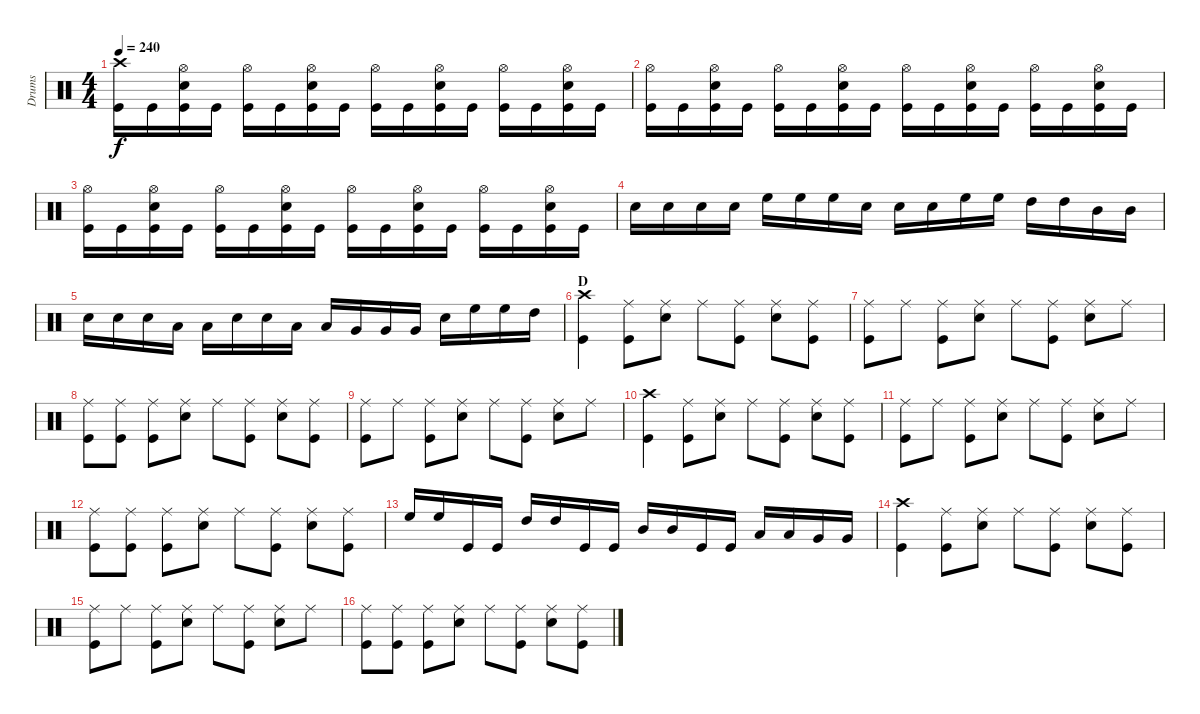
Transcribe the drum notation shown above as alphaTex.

\track ("Drums" "Drums") {instrument percussion}
\staff {score}
\articulation defaults
\ts (4 4)
\tempo 240
\clef neutral
\ks c
("Crash high (hit)" "Kick (hit)").16{dy f} "Kick (hit)".16 ("Hi-Hat (open)" "Snare (hit) 2" "Kick (hit)").16 "Kick (hit)".16 ("Hi-Hat (open)" "Kick (hit)").16 "Kick (hit)".16 ("Hi-Hat (open)" "Snare (hit) 2" "Kick (hit)").16 "Kick (hit)".16 ("Hi-Hat (open)" "Kick (hit)").16 "Kick (hit)".16 ("Hi-Hat (open)" "Snare (hit) 2" "Kick (hit)").16 "Kick (hit)".16 ("Hi-Hat (open)" "Kick (hit)").16 "Kick (hit)".16 ("Hi-Hat (open)" "Snare (hit) 2" "Kick (hit)").16 "Kick (hit)".16 |
("Hi-Hat (open)" "Kick (hit)").16 "Kick (hit)".16 ("Hi-Hat (open)" "Snare (hit) 2" "Kick (hit)").16 "Kick (hit)".16 ("Hi-Hat (open)" "Kick (hit)").16 "Kick (hit)".16 ("Hi-Hat (open)" "Snare (hit) 2" "Kick (hit)").16 "Kick (hit)".16 ("Hi-Hat (open)" "Kick (hit)").16 "Kick (hit)".16 ("Hi-Hat (open)" "Snare (hit) 2" "Kick (hit)").16 "Kick (hit)".16 ("Hi-Hat (open)" "Kick (hit)").16 "Kick (hit)".16 ("Hi-Hat (open)" "Snare (hit) 2" "Kick (hit)").16 "Kick (hit)".16 |
("Hi-Hat (open)" "Kick (hit)").16 "Kick (hit)".16 ("Hi-Hat (open)" "Snare (hit) 2" "Kick (hit)").16 "Kick (hit)".16 ("Hi-Hat (open)" "Kick (hit)").16 "Kick (hit)".16 ("Hi-Hat (open)" "Snare (hit) 2" "Kick (hit)").16 "Kick (hit)".16 ("Hi-Hat (open)" "Kick (hit)").16 "Kick (hit)".16 ("Hi-Hat (open)" "Snare (hit) 2" "Kick (hit)").16 "Kick (hit)".16 ("Hi-Hat (open)" "Kick (hit)").16 "Kick (hit)".16 ("Hi-Hat (open)" "Snare (hit) 2" "Kick (hit)").16 "Kick (hit)".16 |
"Snare (hit) 2".16 "Snare (hit) 2".16 "Snare (hit) 2".16 "Snare (hit) 2".16 "High Floor Tom (hit)".16 "High Floor Tom (hit)".16 "High Floor Tom (hit)".16 "Snare (hit) 2".16 "Snare (hit) 2".16 "Snare (hit) 2".16 "High Floor Tom (hit)".16 "High Floor Tom (hit)".16 "High Tom (hit)".16 "High Tom (hit)".16 "Mid Tom (hit)".16 "Mid Tom (hit)".16 |
"Snare (hit) 2".16 "Snare (hit) 2".16 "Snare (hit) 2".16 "Low Tom (hit)".16 "Low Tom (hit)".16 "Snare (hit) 2".16 "Snare (hit) 2".16 "Low Tom (hit)".16 "Low Tom (hit)".16 "Very Low Tom (hit)".16 "Very Low Tom (hit)".16 "Very Low Tom (hit)".16 "Snare (hit) 2".16 "High Floor Tom (hit)".16 "High Floor Tom (hit)".16 "High Tom (hit)".16 |
\section ("" "D")
("Crash high (hit)" "Kick (hit)").4 ("Ride (middle)" "Kick (hit)").8 ("Ride (middle)" "Snare (hit) 2").8 "Ride (middle)".8 ("Ride (middle)" "Kick (hit)").8 ("Ride (middle)" "Snare (hit) 2").8 ("Ride (middle)" "Kick (hit)").8 |
("Ride (middle)" "Kick (hit)").8 "Ride (middle)".8 ("Ride (middle)" "Kick (hit)").8 ("Ride (middle)" "Snare (hit) 2").8 "Ride (middle)".8 ("Ride (middle)" "Kick (hit)").8 ("Ride (middle)" "Snare (hit) 2").8 "Ride (middle)".8 |
("Ride (middle)" "Kick (hit)").8 ("Ride (middle)" "Kick (hit)").8 ("Ride (middle)" "Kick (hit)").8 ("Ride (middle)" "Snare (hit) 2").8 "Ride (middle)".8 ("Ride (middle)" "Kick (hit)").8 ("Ride (middle)" "Snare (hit) 2").8 ("Ride (middle)" "Kick (hit)").8 |
("Ride (middle)" "Kick (hit)").8 "Ride (middle)".8 ("Ride (middle)" "Kick (hit)").8 ("Ride (middle)" "Snare (hit) 2").8 "Ride (middle)".8 ("Ride (middle)" "Kick (hit)").8 ("Ride (middle)" "Snare (hit) 2").8 "Ride (middle)".8 |
("Crash high (hit)" "Kick (hit)").4 ("Ride (middle)" "Kick (hit)").8 ("Ride (middle)" "Snare (hit) 2").8 "Ride (middle)".8 ("Ride (middle)" "Kick (hit)").8 ("Ride (middle)" "Snare (hit) 2").8 ("Ride (middle)" "Kick (hit)").8 |
("Ride (middle)" "Kick (hit)").8 "Ride (middle)".8 ("Ride (middle)" "Kick (hit)").8 ("Ride (middle)" "Snare (hit) 2").8 "Ride (middle)".8 ("Ride (middle)" "Kick (hit)").8 ("Ride (middle)" "Snare (hit) 2").8 "Ride (middle)".8 |
("Ride (middle)" "Kick (hit)").8 ("Ride (middle)" "Kick (hit)").8 ("Ride (middle)" "Kick (hit)").8 ("Ride (middle)" "Snare (hit) 2").8 "Ride (middle)".8 ("Ride (middle)" "Kick (hit)").8 ("Ride (middle)" "Snare (hit) 2").8 ("Ride (middle)" "Kick (hit)").8 |
"High Floor Tom (hit)".16 "High Floor Tom (hit)".16 "Kick (hit)".16 "Kick (hit)".16 "High Tom (hit)".16 "High Tom (hit)".16 "Kick (hit)".16 "Kick (hit)".16 "Mid Tom (hit)".16 "Mid Tom (hit)".16 "Kick (hit)".16 "Kick (hit)".16 "Low Tom (hit)".16 "Low Tom (hit)".16 "Very Low Tom (hit)".16 "Very Low Tom (hit)".16 |
("Crash high (hit)" "Kick (hit)").4 ("Ride (middle)" "Kick (hit)").8 ("Ride (middle)" "Snare (hit) 2").8 "Ride (middle)".8 ("Ride (middle)" "Kick (hit)").8 ("Ride (middle)" "Snare (hit) 2").8 ("Ride (middle)" "Kick (hit)").8 |
("Ride (middle)" "Kick (hit)").8 "Ride (middle)".8 ("Ride (middle)" "Kick (hit)").8 ("Ride (middle)" "Snare (hit) 2").8 "Ride (middle)".8 ("Ride (middle)" "Kick (hit)").8 ("Ride (middle)" "Snare (hit) 2").8 "Ride (middle)".8 |
("Ride (middle)" "Kick (hit)").8 ("Ride (middle)" "Kick (hit)").8 ("Ride (middle)" "Kick (hit)").8 ("Ride (middle)" "Snare (hit) 2").8 "Ride (middle)".8 ("Ride (middle)" "Kick (hit)").8 ("Ride (middle)" "Snare (hit) 2").8 ("Ride (middle)" "Kick (hit)").8
